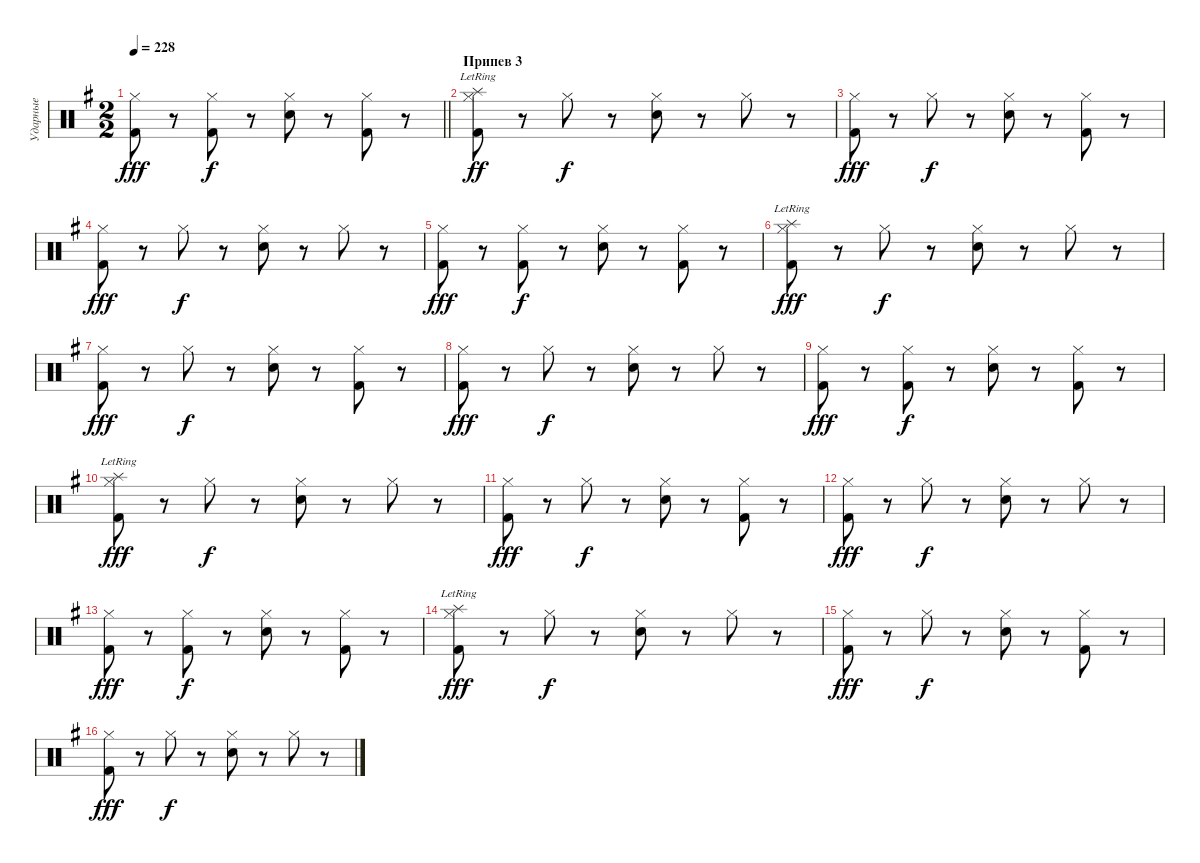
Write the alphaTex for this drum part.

\track ("Ударные" "Ударные") {instrument percussion}
\staff {score}
\articulation defaults
\ts (2 2)
\tempo 228
\clef neutral
\barLineRight lightlight
\ks eminor
("Hi-Hat (closed)" "Kick (hit) 2").8{dy fff} r.8 ("Hi-Hat (closed)" "Kick (hit) 2").8{dy f} r.8 ("Hi-Hat (closed)" "Snare (hit) 2").8 r.8 ("Hi-Hat (closed)" "Kick (hit) 2").8 r.8 |
\section ("" "Припев 3")
("Hi-Hat (closed)" "Splash (hit)"{lr} "Kick (hit) 2").8{dy ff} r.8 "Hi-Hat (closed)".8{dy f} r.8 ("Hi-Hat (closed)" "Snare (hit) 2").8 r.8 "Hi-Hat (closed)".8 r.8 |
("Hi-Hat (closed)" "Kick (hit) 2").8{dy fff} r.8 "Hi-Hat (closed)".8{dy f} r.8 ("Hi-Hat (closed)" "Snare (hit) 2").8 r.8 ("Hi-Hat (closed)" "Kick (hit) 2").8 r.8 |
("Hi-Hat (closed)" "Kick (hit) 2").8{dy fff} r.8 "Hi-Hat (closed)".8{dy f} r.8 ("Hi-Hat (closed)" "Snare (hit) 2").8 r.8 "Hi-Hat (closed)".8 r.8 |
("Hi-Hat (closed)" "Kick (hit) 2").8{dy fff} r.8 ("Hi-Hat (closed)" "Kick (hit) 2").8{dy f} r.8 ("Hi-Hat (closed)" "Snare (hit) 2").8 r.8 ("Hi-Hat (closed)" "Kick (hit) 2").8 r.8 |
("Hi-Hat (closed)" "Splash (hit)"{lr} "Kick (hit) 2").8{dy fff} r.8 "Hi-Hat (closed)".8{dy f} r.8 ("Hi-Hat (closed)" "Snare (hit) 2").8 r.8 "Hi-Hat (closed)".8 r.8 |
("Hi-Hat (closed)" "Kick (hit) 2").8{dy fff} r.8 "Hi-Hat (closed)".8{dy f} r.8 ("Hi-Hat (closed)" "Snare (hit) 2").8 r.8 ("Hi-Hat (closed)" "Kick (hit) 2").8 r.8 |
("Hi-Hat (closed)" "Kick (hit) 2").8{dy fff} r.8 "Hi-Hat (closed)".8{dy f} r.8 ("Hi-Hat (closed)" "Snare (hit) 2").8 r.8 "Hi-Hat (closed)".8 r.8 |
("Hi-Hat (closed)" "Kick (hit) 2").8{dy fff} r.8 ("Hi-Hat (closed)" "Kick (hit) 2").8{dy f} r.8 ("Hi-Hat (closed)" "Snare (hit) 2").8 r.8 ("Hi-Hat (closed)" "Kick (hit) 2").8 r.8 |
("Hi-Hat (closed)" "Splash (hit)"{lr} "Kick (hit) 2").8{dy fff} r.8 "Hi-Hat (closed)".8{dy f} r.8 ("Hi-Hat (closed)" "Snare (hit) 2").8 r.8 "Hi-Hat (closed)".8 r.8 |
("Hi-Hat (closed)" "Kick (hit) 2").8{dy fff} r.8 "Hi-Hat (closed)".8{dy f} r.8 ("Hi-Hat (closed)" "Snare (hit) 2").8 r.8 ("Hi-Hat (closed)" "Kick (hit) 2").8 r.8 |
("Hi-Hat (closed)" "Kick (hit) 2").8{dy fff} r.8 "Hi-Hat (closed)".8{dy f} r.8 ("Hi-Hat (closed)" "Snare (hit) 2").8 r.8 "Hi-Hat (closed)".8 r.8 |
("Hi-Hat (closed)" "Kick (hit) 2").8{dy fff} r.8 ("Hi-Hat (closed)" "Kick (hit) 2").8{dy f} r.8 ("Hi-Hat (closed)" "Snare (hit) 2").8 r.8 ("Hi-Hat (closed)" "Kick (hit) 2").8 r.8 |
("Hi-Hat (closed)" "Splash (hit)"{lr} "Kick (hit) 2").8{dy fff} r.8 "Hi-Hat (closed)".8{dy f} r.8 ("Hi-Hat (closed)" "Snare (hit) 2").8 r.8 "Hi-Hat (closed)".8 r.8 |
("Hi-Hat (closed)" "Kick (hit) 2").8{dy fff} r.8 "Hi-Hat (closed)".8{dy f} r.8 ("Hi-Hat (closed)" "Snare (hit) 2").8 r.8 ("Hi-Hat (closed)" "Kick (hit) 2").8 r.8 |
("Hi-Hat (closed)" "Kick (hit) 2").8{dy fff} r.8 "Hi-Hat (closed)".8{dy f} r.8 ("Hi-Hat (closed)" "Snare (hit) 2").8 r.8 "Hi-Hat (closed)".8 r.8
